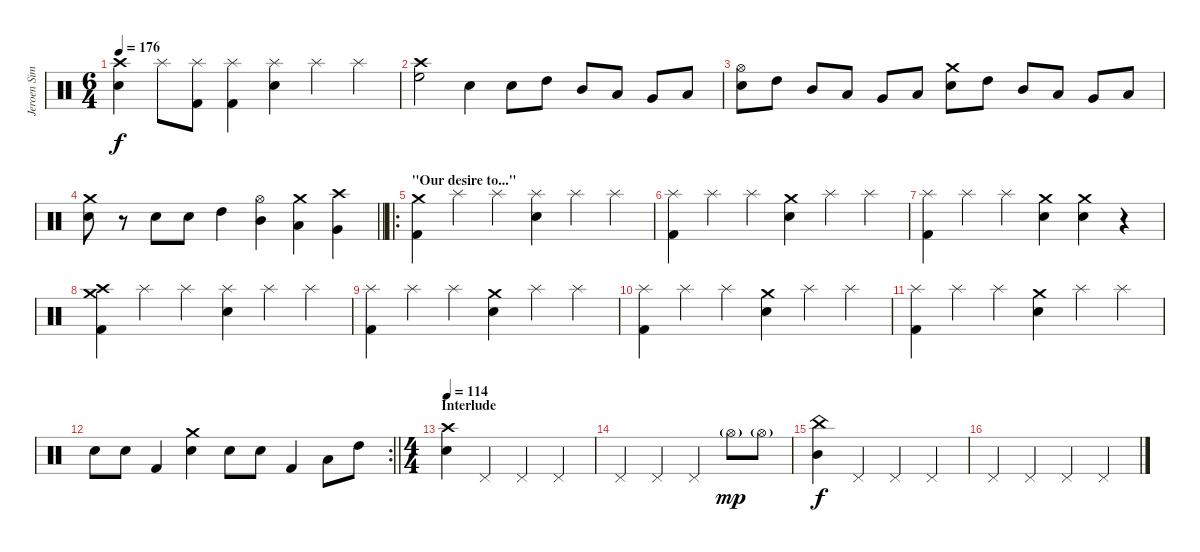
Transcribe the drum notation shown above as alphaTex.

\track ("Jeroen Simons" "Jeroen Sim") {instrument percussion}
\staff {score}
\articulation defaults
\ts (6 4)
\tempo 176
\clef neutral
\ks c
("Crash high (hit)" "Snare (hit) 2").4{dy f} "Splash (hit)".8 ("Splash (hit)" "Kick (hit) 2").8 ("Splash (hit)" "Kick (hit) 2").4 ("Splash (hit)" "Electric Snare (hit)").4 "Splash (hit)".4 "Splash (hit)".4 |
("Crash high (hit)" "High Floor Tom (hit)").2 "Snare (hit) 2".4 "Electric Snare (hit)".8 "High Tom (hit)".8 "Mid Tom (hit)".8 "Low Tom (hit)".8 "Very Low Tom (hit)".8 "Low Floor Tom (hit)".8 |
("Hi-Hat (open)" "Snare (hit) 2").8 "High Tom (hit)".8 "Mid Tom (hit)".8 "Low Tom (hit)".8 "Very Low Tom (hit)".8 "Low Floor Tom (hit)".8 ("Crash medium (hit)" "Snare (hit) 2").8 "High Tom (hit)".8 "Mid Tom (hit)".8 "Low Tom (hit)".8 "Very Low Tom (hit)".8 "Low Floor Tom (hit)".8 |
\barLineRight lightlight
("Crash medium (hit)" "Snare (hit) 2").8 r.8 "Snare (hit) 2".8 "Snare (hit) 2".8 "High Tom (hit)".4 ("Hi-Hat (open)" "Mid Tom (hit)").4 ("Crash medium (hit)" "Low Tom (hit)").4 ("Crash high (hit)" "Very Low Tom (hit)").4 |
\ro
\section ("" "\"Our desire to...\"")
("Crash medium (hit)" "Kick (hit) 2").4 "Splash (hit)".4 "Splash (hit)".4 ("Splash (hit)" "Electric Snare (hit)").4 "Splash (hit)".4 "Splash (hit)".4 |
("Splash (hit)" "Kick (hit) 2").4 "Splash (hit)".4 "Splash (hit)".4 ("Crash medium (hit)" "Electric Snare (hit)").4 "Splash (hit)".4 "Splash (hit)".4 |
("Splash (hit)" "Kick (hit) 2").4 "Splash (hit)".4 "Splash (hit)".4 ("Crash medium (hit)" "Electric Snare (hit)").4 ("Crash medium (hit)" "Electric Snare (hit)").4 r.4 |
("Crash medium (hit)" "Crash high (hit)" "Kick (hit) 2").4 "Splash (hit)".4 "Splash (hit)".4 ("Splash (hit)" "Electric Snare (hit)").4 "Splash (hit)".4 "Splash (hit)".4 |
("Splash (hit)" "Kick (hit) 2").4 "Splash (hit)".4 "Splash (hit)".4 ("Crash medium (hit)" "Electric Snare (hit)").4 "Splash (hit)".4 "Splash (hit)".4 |
("Splash (hit)" "Kick (hit) 2").4 "Splash (hit)".4 "Splash (hit)".4 ("Crash medium (hit)" "Electric Snare (hit)").4 "Splash (hit)".4 "Splash (hit)".4 |
("Splash (hit)" "Kick (hit) 2").4 "Splash (hit)".4 "Splash (hit)".4 ("Crash medium (hit)" "Electric Snare (hit)").4 "Splash (hit)".4 "Splash (hit)".4 |
\rc 2
\barLineRight lightlight "Electric Snare (hit)".8 "Electric Snare (hit)".8 "Kick (hit) 2".4
("Crash medium (hit)" "Electric Snare (hit)").4 "Electric Snare (hit)".8 "Electric Snare (hit)".8 "Kick (hit) 2".4 "Low Tom (hit)".8 "High Tom (hit)".8 |
\ts (4 4)
\section ("" "Interlude")
\tempo 114
("Crash high (hit)" "Snare (hit) 2").4 "Pedal Hi-Hat (hit)".4 "Pedal Hi-Hat (hit)".4 "Pedal Hi-Hat (hit)".4 |
"Pedal Hi-Hat (hit)".4 "Pedal Hi-Hat (hit)".4 "Pedal Hi-Hat (hit)".4 "Hi-Hat (open)"{g}.8{dy mp} "Hi-Hat (open)"{g}.8 |
("China (hit)" "Mid Tom (hit)").4{dy f} "Pedal Hi-Hat (hit)".4 "Pedal Hi-Hat (hit)".4 "Pedal Hi-Hat (hit)".4 |
"Pedal Hi-Hat (hit)".4 "Pedal Hi-Hat (hit)".4 "Pedal Hi-Hat (hit)".4 "Pedal Hi-Hat (hit)".4
